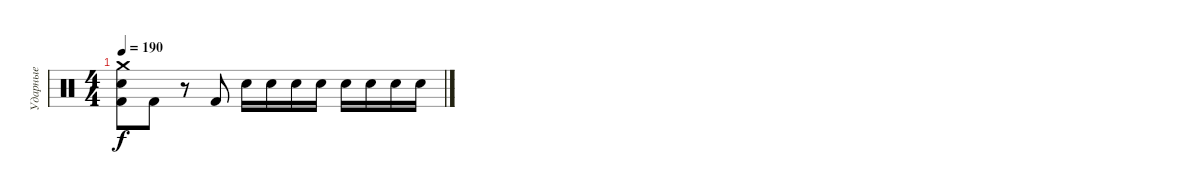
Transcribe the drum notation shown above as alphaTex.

\track ("Ударные" "Ударные") {instrument percussion}
\staff {score}
\articulation defaults
\ts (4 4)
\tempo 190
\clef neutral
\ks c
("Crash medium (hit)" "Electric Snare (hit)" "Kick (hit) 2").8{dy f} "Kick (hit) 2".8 r.8 "Kick (hit) 2".8 "Electric Snare (hit)".16 "Electric Snare (hit)".16 "Electric Snare (hit)".16 "Electric Snare (hit)".16 "Electric Snare (hit)".16 "Electric Snare (hit)".16 "Electric Snare (hit)".16 "Electric Snare (hit)".16
